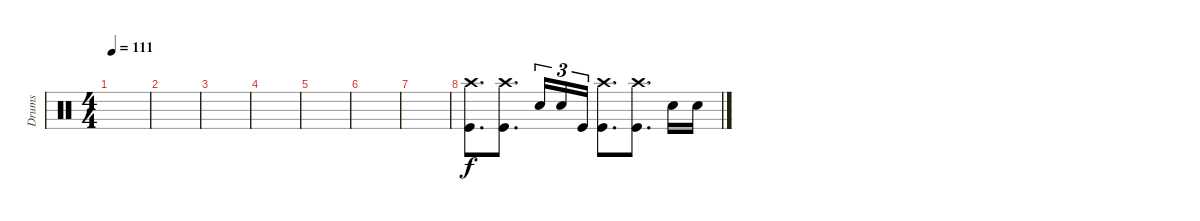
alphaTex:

\track ("Drums" "Drums") {instrument percussion}
\staff
\articulation defaults
\ts (4 4)
\tempo 111
\clef neutral
\ks c
|
|
|
|
|
|
|
("Crash high (hit)" "Kick (hit)").8{d} ("Crash high (hit)" "Kick (hit)").8{d} "Electric Snare (hit)".16{tu (3 2)} "Electric Snare (hit)".16{tu (3 2)} "Kick (hit)".16{tu (3 2)} ("Crash high (hit)" "Kick (hit)").8{d} ("Crash high (hit)" "Kick (hit)").8{d} "Electric Snare (hit)".16 "Electric Snare (hit)".16
